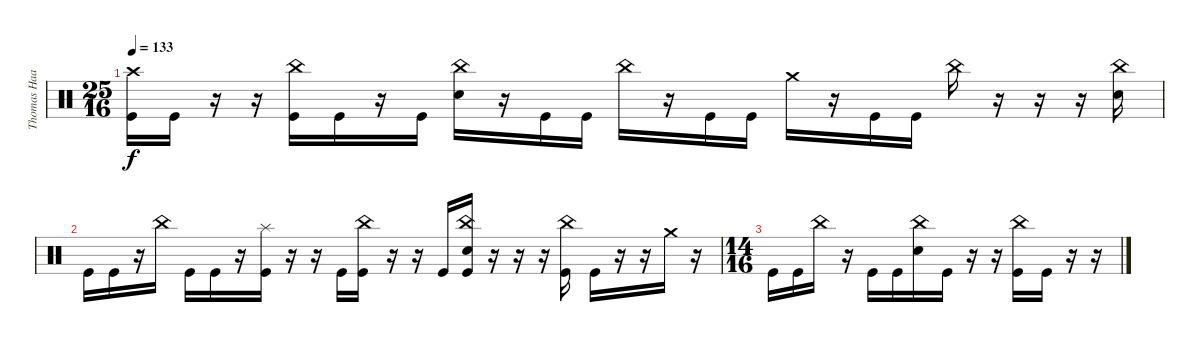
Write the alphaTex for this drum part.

\track ("Thomas Haake" "Thomas Haa") {instrument percussion}
\staff {score}
\articulation defaults
\ts (25 16)
\tempo 133
\clef neutral
\ks c
("Crash high (hit)" "Kick (hit)").16{dy f volume 0} "Kick (hit)".16 r.16 r.16 ("China (hit)" "Kick (hit)").16 "Kick (hit)".16 r.16 "Kick (hit)".16 ("China (hit)" "Snare (hit) 2").16 r.16 "Kick (hit)".16 "Kick (hit)".16 "China (hit)".16 r.16 "Kick (hit)".16 "Kick (hit)".16 "Crash medium (hit)".16 r.16 "Kick (hit)".16 "Kick (hit)".16 "China (hit)".16 r.16 r.16 r.16 ("China (hit)" "Snare (hit) 2").16 |
"Kick (hit)".16 "Kick (hit)".16 r.16 "China (hit)".16 "Kick (hit)".16 "Kick (hit)".16 r.16 ("Splash (hit)" "Kick (hit)").16 r.16 r.16 "Kick (hit)".16 ("China (hit)" "Kick (hit)").16 r.16 r.16 "Kick (hit)".16 ("China (hit)" "Snare (hit) 2" "Kick (hit)").16 r.16 r.16 r.16 ("China (hit)" "Kick (hit)").16 "Kick (hit)".16 r.16 r.16 "Crash medium (hit)".16 r.16 |
\ts (14 16)
"Kick (hit)".16 "Kick (hit)".16 "China (hit)".16 r.16 "Kick (hit)".16 "Kick (hit)".16 ("China (hit)" "Snare (hit) 2").16 "Kick (hit)".16 r.16 r.16 ("China (hit)" "Kick (hit)").16 "Kick (hit)".16 r.16 r.16
